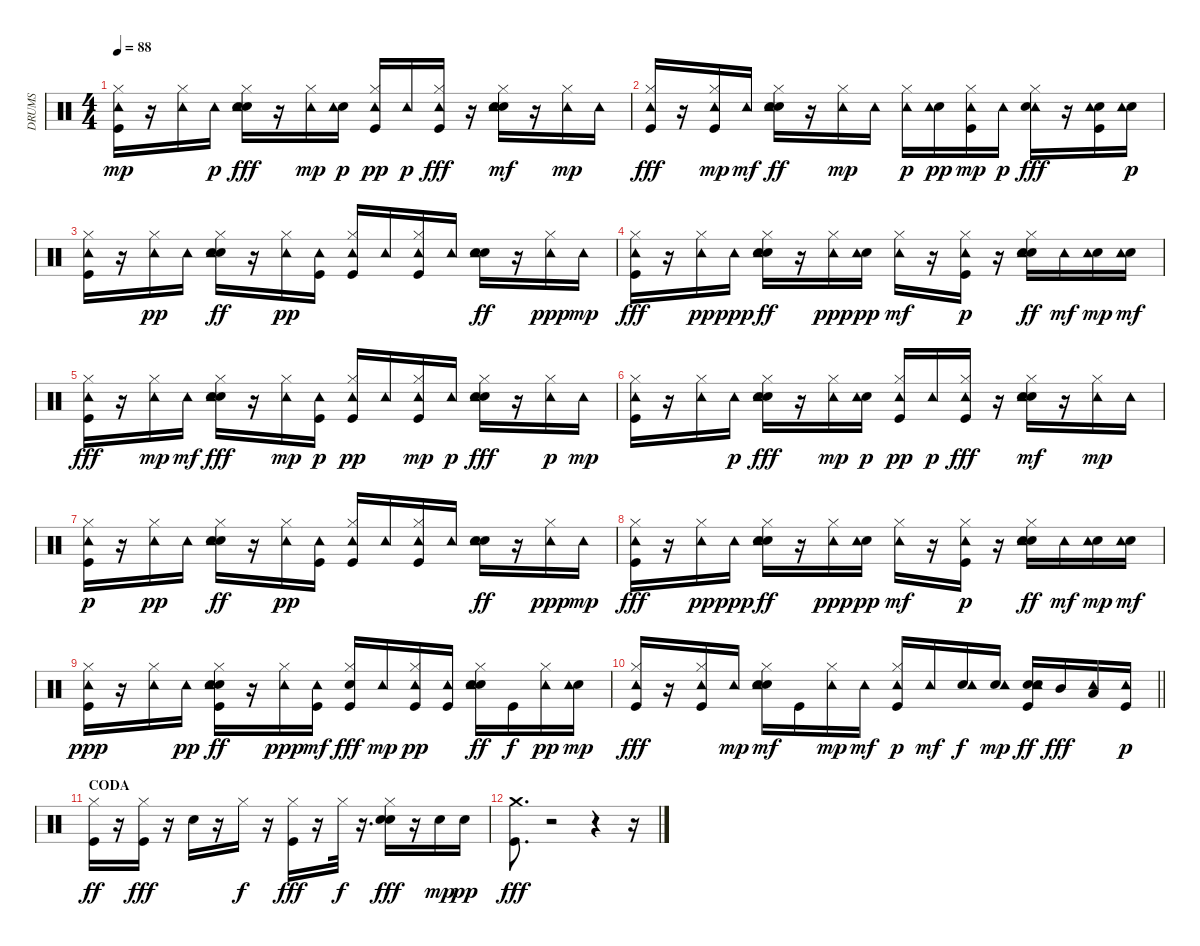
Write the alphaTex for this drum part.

\track ("DRUMS" "DRUMS") {instrument percussion}
\staff {score}
\articulation defaults
\ts (4 4)
\tempo 88
\clef neutral
\ks c
("Kick (hit)" "Hi-Hat (closed)" "Tambourine (hit)").16{dy mp} r.16 ("Hi-Hat (closed)" "Tambourine (hit)").16 "Tambourine (hit)".16{dy p} ("Electric Snare (hit)" "Hi-Hat (closed)" "Tambourine (hit)" "Hand Clap (hit)").16{dy fff} r.16 ("Hi-Hat (closed)" "Tambourine (hit)").16{dy mp} ("Electric Snare (hit)" "Tambourine (hit)").16{dy p} ("Kick (hit)" "Hi-Hat (closed)" "Tambourine (hit)").16{dy pp} "Tambourine (hit)".16{dy p} ("Kick (hit)" "Hi-Hat (closed)" "Tambourine (hit)").16{dy fff} r.16 ("Electric Snare (hit)" "Hi-Hat (closed)" "Tambourine (hit)" "Hand Clap (hit)").16{dy mf} r.16 ("Hi-Hat (closed)" "Tambourine (hit)").16{dy mp} "Tambourine (hit)".16 |
("Kick (hit)" "Hi-Hat (closed)" "Tambourine (hit)").16{dy fff} r.16 ("Kick (hit)" "Hi-Hat (closed)" "Tambourine (hit)").16{dy mp} "Tambourine (hit)".16{dy mf} ("Electric Snare (hit)" "Hi-Hat (closed)" "Tambourine (hit)" "Hand Clap (hit)").16{dy ff} r.16 ("Hi-Hat (closed)" "Tambourine (hit)").16{dy mp} "Tambourine (hit)".16 ("Hi-Hat (closed)" "Tambourine (hit)").16{dy p} ("Electric Snare (hit)" "Tambourine (hit)").16{dy pp} ("Kick (hit)" "Hi-Hat (closed)" "Tambourine (hit)").16{dy mp} "Tambourine (hit)".16{dy p} ("Hi-Hat (closed)" "Tambourine (hit)" "Hand Clap (hit)").16{dy fff} r.16 ("Kick (hit)" "Electric Snare (hit)" "Tambourine (hit)").16 ("Electric Snare (hit)" "Tambourine (hit)").16{dy p} |
("Kick (hit)" "Hi-Hat (closed)" "Tambourine (hit)").16 r.16 ("Hi-Hat (closed)" "Tambourine (hit)").16{dy pp} "Tambourine (hit)".16 ("Electric Snare (hit)" "Hi-Hat (closed)" "Tambourine (hit)" "Hand Clap (hit)").16{dy ff} r.16 ("Hi-Hat (closed)" "Tambourine (hit)").16{dy pp} ("Kick (hit)" "Tambourine (hit)").16 ("Kick (hit)" "Hi-Hat (closed)" "Tambourine (hit)").16 "Tambourine (hit)".16 ("Kick (hit)" "Hi-Hat (closed)" "Tambourine (hit)").16 "Tambourine (hit)".16 ("Electric Snare (hit)" "Tambourine (hit)" "Hand Clap (hit)").16{dy ff} r.16 ("Hi-Hat (closed)" "Tambourine (hit)").16{dy ppp} "Tambourine (hit)".16{dy mp} |
("Kick (hit)" "Hi-Hat (closed)" "Tambourine (hit)").16{dy fff} r.16 ("Hi-Hat (closed)" "Tambourine (hit)").16{dy pp} "Tambourine (hit)".16{dy ppp} ("Electric Snare (hit)" "Hi-Hat (closed)" "Tambourine (hit)" "Hand Clap (hit)").16{dy ff} r.16 ("Hi-Hat (closed)" "Tambourine (hit)").16{dy ppp} ("Electric Snare (hit)" "Tambourine (hit)").16{dy pp} ("Hi-Hat (closed)" "Tambourine (hit)").16{dy mf} r.16 ("Kick (hit)" "Hi-Hat (closed)" "Tambourine (hit)").16{dy p} r.16 ("Electric Snare (hit)" "Hi-Hat (closed)" "Tambourine (hit)" "Hand Clap (hit)").16{dy ff} "Tambourine (hit)".16{dy mf} ("Electric Snare (hit)" "Tambourine (hit)").16{dy mp} ("Electric Snare (hit)" "Tambourine (hit)").16{dy mf} |
("Kick (hit)" "Hi-Hat (closed)" "Tambourine (hit)").16{dy fff} r.16 ("Hi-Hat (closed)" "Tambourine (hit)").16{dy mp} "Tambourine (hit)".16{dy mf} ("Electric Snare (hit)" "Hi-Hat (closed)" "Tambourine (hit)" "Hand Clap (hit)").16{dy fff} r.16 ("Hi-Hat (closed)" "Tambourine (hit)").16{dy mp} ("Kick (hit)" "Tambourine (hit)").16{dy p} ("Kick (hit)" "Hi-Hat (closed)" "Tambourine (hit)").16{dy pp} "Tambourine (hit)".16 ("Kick (hit)" "Hi-Hat (closed)" "Tambourine (hit)").16{dy mp} "Tambourine (hit)".16{dy p} ("Electric Snare (hit)" "Hi-Hat (closed)" "Tambourine (hit)" "Hand Clap (hit)").16{dy fff} r.16 ("Hi-Hat (closed)" "Tambourine (hit)").16{dy p} "Tambourine (hit)".16{dy mp} |
("Kick (hit)" "Hi-Hat (closed)" "Tambourine (hit)").16 r.16 ("Hi-Hat (closed)" "Tambourine (hit)").16 "Tambourine (hit)".16{dy p} ("Electric Snare (hit)" "Hi-Hat (closed)" "Tambourine (hit)" "Hand Clap (hit)").16{dy fff} r.16 ("Hi-Hat (closed)" "Tambourine (hit)").16{dy mp} ("Electric Snare (hit)" "Tambourine (hit)").16{dy p} ("Kick (hit)" "Hi-Hat (closed)" "Tambourine (hit)").16{dy pp} "Tambourine (hit)".16{dy p} ("Kick (hit)" "Hi-Hat (closed)" "Tambourine (hit)").16{dy fff} r.16 ("Electric Snare (hit)" "Hi-Hat (closed)" "Tambourine (hit)" "Hand Clap (hit)").16{dy mf} r.16 ("Hi-Hat (closed)" "Tambourine (hit)").16{dy mp} "Tambourine (hit)".16 |
("Kick (hit)" "Hi-Hat (closed)" "Tambourine (hit)").16{dy p} r.16 ("Hi-Hat (closed)" "Tambourine (hit)").16{dy pp} "Tambourine (hit)".16 ("Electric Snare (hit)" "Hi-Hat (closed)" "Tambourine (hit)" "Hand Clap (hit)").16{dy ff} r.16 ("Hi-Hat (closed)" "Tambourine (hit)").16{dy pp} ("Kick (hit)" "Tambourine (hit)").16 ("Kick (hit)" "Hi-Hat (closed)" "Tambourine (hit)").16 "Tambourine (hit)".16 ("Kick (hit)" "Hi-Hat (closed)" "Tambourine (hit)").16 "Tambourine (hit)".16 ("Electric Snare (hit)" "Tambourine (hit)" "Hand Clap (hit)").16{dy ff} r.16 ("Hi-Hat (closed)" "Tambourine (hit)").16{dy ppp} "Tambourine (hit)".16{dy mp} |
("Kick (hit)" "Hi-Hat (closed)" "Tambourine (hit)").16{dy fff} r.16 ("Hi-Hat (closed)" "Tambourine (hit)").16{dy pp} "Tambourine (hit)".16{dy ppp} ("Electric Snare (hit)" "Hi-Hat (closed)" "Tambourine (hit)" "Hand Clap (hit)").16{dy ff} r.16 ("Hi-Hat (closed)" "Tambourine (hit)").16{dy ppp} ("Electric Snare (hit)" "Tambourine (hit)").16{dy pp} ("Hi-Hat (closed)" "Tambourine (hit)").16{dy mf} r.16 ("Kick (hit)" "Hi-Hat (closed)" "Tambourine (hit)").16{dy p} r.16 ("Electric Snare (hit)" "Hi-Hat (closed)" "Tambourine (hit)" "Hand Clap (hit)").16{dy ff} "Tambourine (hit)".16{dy mf} ("Electric Snare (hit)" "Tambourine (hit)").16{dy mp} ("Electric Snare (hit)" "Tambourine (hit)").16{dy mf} |
("Kick (hit)" "Hi-Hat (closed)" "Tambourine (hit)").16{dy ppp} r.16 ("Hi-Hat (closed)" "Tambourine (hit)").16 "Tambourine (hit)".16{dy pp} ("Kick (hit)" "Electric Snare (hit)" "Hi-Hat (closed)" "Tambourine (hit)" "Hand Clap (hit)").16{dy ff} r.16 ("Hi-Hat (closed)" "Tambourine (hit)").16{dy ppp} ("Kick (hit)" "Tambourine (hit)").16{dy mf} ("Kick (hit)" "Electric Snare (hit)" "Hi-Hat (closed)").16{dy fff} "Tambourine (hit)".16{dy mp} ("Kick (hit)" "Hi-Hat (closed)" "Tambourine (hit)").16{dy pp} ("Kick (hit)" "Tambourine (hit)").16 ("Electric Snare (hit)" "Hi-Hat (closed)" "Tambourine (hit)" "Hand Clap (hit)").16{dy ff} "Kick (hit)".16{dy f} ("Hi-Hat (closed)" "Tambourine (hit)").16{dy pp} ("Electric Snare (hit)" "Tambourine (hit)").16{dy mp} |
\barLineRight lightlight
("Kick (hit)" "Hi-Hat (closed)" "Tambourine (hit)").16{dy fff} r.16 ("Kick (hit)" "Hi-Hat (closed)" "Tambourine (hit)").16 "Tambourine (hit)".16{dy mp} ("Electric Snare (hit)" "Hi-Hat (closed)" "Tambourine (hit)" "Hand Clap (hit)").16{dy mf} "Kick (hit)".16 ("Hi-Hat (closed)" "Tambourine (hit)").16{dy mp} "Tambourine (hit)".16{dy mf} ("Kick (hit)" "Hi-Hat (closed)" "Tambourine (hit)").16{dy p} "Tambourine (hit)".16{dy mf} ("Electric Snare (hit)" "Tambourine (hit)").16{dy f} ("Electric Snare (hit)" "Tambourine (hit)").16{dy mp} ("Kick (hit)" "Electric Snare (hit)" "Tambourine (hit)" "Hand Clap (hit)").16{dy ff} "Mid Tom (hit)".16{dy fff} ("Low Floor Tom (hit)" "Tambourine (hit)").16 ("Kick (hit)" "Tambourine (hit)").16{dy p} |
\section ("" "CODA")
("Kick (hit)" "Hi-Hat (closed)").16{dy ff} r.16 ("Kick (hit)" "Hi-Hat (closed)").16{dy fff} r.16 "Hand Clap (hit)".16 r.16 "Hi-Hat (closed)".16{dy f} r.16 ("Kick (hit)" "Hi-Hat (closed)").16{dy fff} r.16 "Hi-Hat (closed)".32{dy f} r.16{d} ("Hand Clap (hit)" "Electric Snare (hit)" "Hi-Hat (closed)").16{dy fff} r.16 "Electric Snare (hit)".16{dy mp} "Snare (hit) 2".16{dy pp} |
("Kick (hit)" "Crash medium (hit)").8{d dy fff} r.2 r.4 r.16
